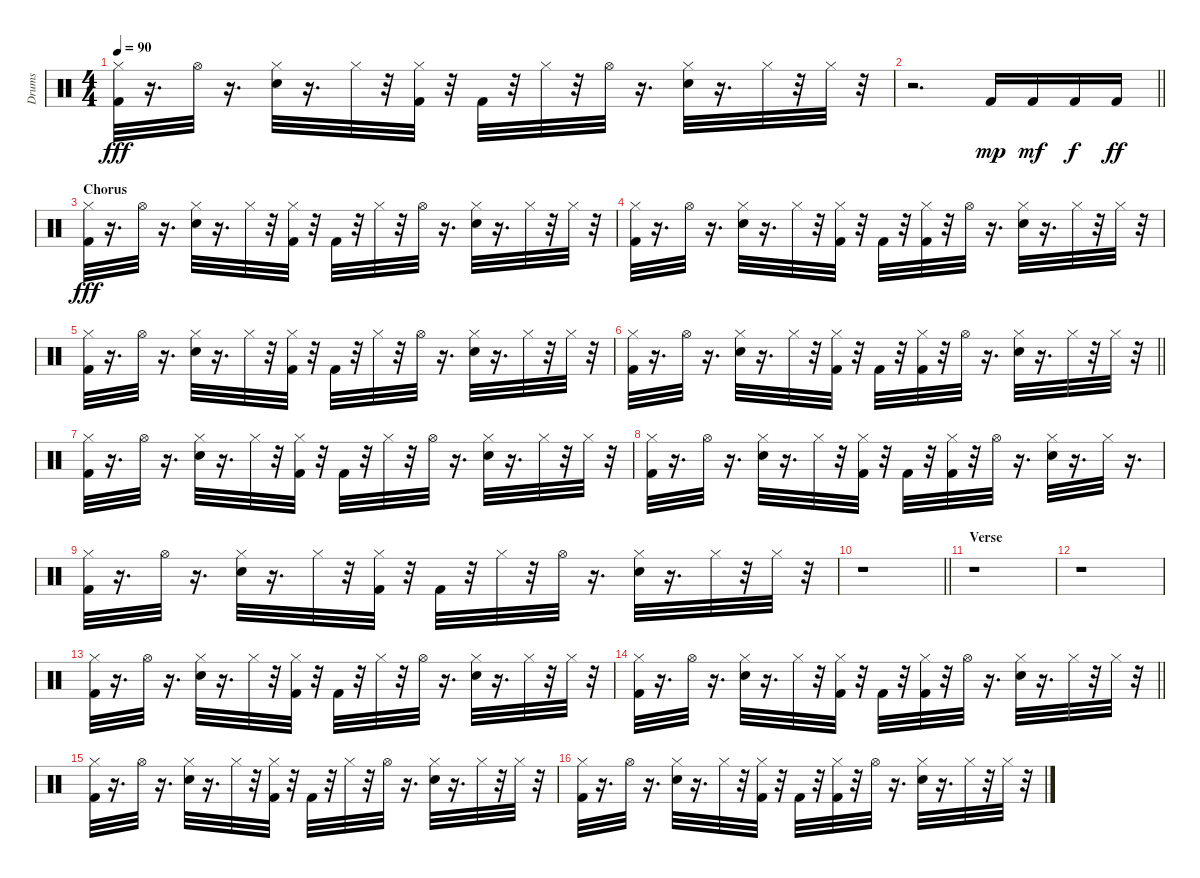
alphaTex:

\track ("Drums" "Drums") {instrument percussion}
\staff {score}
\articulation defaults
\ts (4 4)
\tempo 90
\clef neutral
\ks c
("Hi-Hat (closed)" "Kick (hit) 2").32{dy fff} r.16{d} "Hi-Hat (open)".32 r.16{d} ("Hi-Hat (closed)" "Snare (hit) 2").32 r.16{d} "Hi-Hat (closed)".32 r.32 ("Kick (hit) 2" "Hi-Hat (closed)").32 r.32 "Kick (hit) 2".32 r.32 "Hi-Hat (closed)".32 r.32 "Hi-Hat (open)".32 r.16{d} ("Hi-Hat (closed)" "Snare (hit) 2").32 r.16{d} "Hi-Hat (closed)".32 r.32 "Hi-Hat (closed)".32 r.32 |
\barLineRight lightlight
r.2{d} "Kick (hit) 2".16{dy mp} "Kick (hit) 2".16{dy mf} "Kick (hit) 2".16{dy f} "Kick (hit) 2".16{dy ff} |
\section ("" "Chorus")
("Kick (hit) 2" "Hi-Hat (closed)").32{dy fff} r.16{d} "Hi-Hat (open)".32 r.16{d} ("Hi-Hat (closed)" "Snare (hit) 2").32 r.16{d} "Hi-Hat (closed)".32 r.32 ("Kick (hit) 2" "Hi-Hat (closed)").32 r.32 "Kick (hit) 2".32 r.32 "Hi-Hat (closed)".32 r.32 "Hi-Hat (open)".32 r.16{d} ("Hi-Hat (closed)" "Snare (hit) 2").32 r.16{d} "Hi-Hat (closed)".32 r.32 "Hi-Hat (closed)".32 r.32 |
("Hi-Hat (closed)" "Kick (hit) 2").32 r.16{d} "Hi-Hat (open)".32 r.16{d} ("Snare (hit) 2" "Hi-Hat (closed)").32 r.16{d} "Hi-Hat (closed)".32 r.32 ("Hi-Hat (closed)" "Kick (hit) 2").32 r.32 "Kick (hit) 2".32 r.32 ("Hi-Hat (closed)" "Kick (hit) 2").32 r.32 "Hi-Hat (open)".32 r.16{d} ("Hi-Hat (closed)" "Snare (hit) 2").32 r.16{d} "Hi-Hat (closed)".32 r.32 "Hi-Hat (closed)".32 r.32 |
("Kick (hit) 2" "Hi-Hat (closed)").32 r.16{d} "Hi-Hat (open)".32 r.16{d} ("Snare (hit) 2" "Hi-Hat (closed)").32 r.16{d} "Hi-Hat (closed)".32 r.32 ("Hi-Hat (closed)" "Kick (hit) 2").32 r.32 "Kick (hit) 2".32 r.32 "Hi-Hat (closed)".32 r.32 "Hi-Hat (open)".32 r.16{d} ("Hi-Hat (closed)" "Snare (hit) 2").32 r.16{d} "Hi-Hat (closed)".32 r.32 "Hi-Hat (closed)".32 r.32 |
\barLineRight lightlight
("Hi-Hat (closed)" "Kick (hit) 2").32 r.16{d} "Hi-Hat (open)".32 r.16{d} ("Hi-Hat (closed)" "Snare (hit) 2").32 r.16{d} "Hi-Hat (closed)".32 r.32 ("Kick (hit) 2" "Hi-Hat (closed)").32 r.32 "Kick (hit) 2".32 r.32 ("Hi-Hat (closed)" "Kick (hit) 2").32 r.32 "Hi-Hat (open)".32 r.16{d} ("Snare (hit) 2" "Hi-Hat (closed)").32 r.16{d} "Hi-Hat (closed)".32 r.32 "Hi-Hat (closed)".32 r.32 |
("Hi-Hat (closed)" "Kick (hit) 2").32 r.16{d} "Hi-Hat (open)".32 r.16{d} ("Snare (hit) 2" "Hi-Hat (closed)").32 r.16{d} "Hi-Hat (closed)".32 r.32 ("Hi-Hat (closed)" "Kick (hit) 2").32 r.32 "Kick (hit) 2".32 r.32 "Hi-Hat (closed)".32 r.32 "Hi-Hat (open)".32 r.16{d} ("Hi-Hat (closed)" "Snare (hit) 2").32 r.16{d} "Hi-Hat (closed)".32 r.32 "Hi-Hat (closed)".32 r.32 |
("Hi-Hat (closed)" "Kick (hit) 2").32 r.16{d} "Hi-Hat (open)".32 r.16{d} ("Snare (hit) 2" "Hi-Hat (closed)").32 r.16{d} "Hi-Hat (closed)".32 r.32 ("Hi-Hat (closed)" "Kick (hit) 2").32 r.32 "Kick (hit) 2".32 r.32 ("Kick (hit) 2" "Hi-Hat (closed)").32 r.32 "Hi-Hat (open)".32 r.16{d} ("Hi-Hat (closed)" "Snare (hit) 2").32 r.16{d} "Hi-Hat (closed)".32 r.16{d} |
("Hi-Hat (closed)" "Kick (hit) 2").32 r.16{d} "Hi-Hat (open)".32 r.16{d} ("Snare (hit) 2" "Hi-Hat (closed)").32 r.16{d} "Hi-Hat (closed)".32 r.32 ("Kick (hit) 2" "Hi-Hat (closed)").32 r.32 "Kick (hit) 2".32 r.32 "Hi-Hat (closed)".32 r.32 "Hi-Hat (open)".32 r.16{d} ("Snare (hit) 2" "Hi-Hat (closed)").32 r.16{d} "Hi-Hat (closed)".32 r.32 "Hi-Hat (closed)".32 r.32 |
\barLineRight lightlight
r.1 |
\section ("" "Verse")
r.1 |
r.1 |
("Kick (hit) 2" "Hi-Hat (closed)").32 r.16{d} "Hi-Hat (open)".32 r.16{d} ("Hi-Hat (closed)" "Snare (hit) 2").32 r.16{d} "Hi-Hat (closed)".32 r.32 ("Kick (hit) 2" "Hi-Hat (closed)").32 r.32 "Kick (hit) 2".32 r.32 "Hi-Hat (closed)".32 r.32 "Hi-Hat (open)".32 r.16{d} ("Snare (hit) 2" "Hi-Hat (closed)").32 r.16{d} "Hi-Hat (closed)".32 r.32 "Hi-Hat (closed)".32 r.32 |
\barLineRight lightlight
("Kick (hit) 2" "Hi-Hat (closed)").32 r.16{d} "Hi-Hat (open)".32 r.16{d} ("Snare (hit) 2" "Hi-Hat (closed)").32 r.16{d} "Hi-Hat (closed)".32 r.32 ("Hi-Hat (closed)" "Kick (hit) 2").32 r.32 "Kick (hit) 2".32 r.32 ("Kick (hit) 2" "Hi-Hat (closed)").32 r.32 "Hi-Hat (open)".32 r.16{d} ("Snare (hit) 2" "Hi-Hat (closed)").32 r.16{d} "Hi-Hat (closed)".32 r.32 "Hi-Hat (closed)".32 r.32 |
("Hi-Hat (closed)" "Kick (hit) 2").32 r.16{d} "Hi-Hat (open)".32 r.16{d} ("Snare (hit) 2" "Hi-Hat (closed)").32 r.16{d} "Hi-Hat (closed)".32 r.32 ("Hi-Hat (closed)" "Kick (hit) 2").32 r.32 "Kick (hit) 2".32 r.32 "Hi-Hat (closed)".32 r.32 "Hi-Hat (open)".32 r.16{d} ("Snare (hit) 2" "Hi-Hat (closed)").32 r.16{d} "Hi-Hat (closed)".32 r.32 "Hi-Hat (closed)".32 r.32 |
("Kick (hit) 2" "Hi-Hat (closed)").32 r.16{d} "Hi-Hat (open)".32 r.16{d} ("Snare (hit) 2" "Hi-Hat (closed)").32 r.16{d} "Hi-Hat (closed)".32 r.32 ("Hi-Hat (closed)" "Kick (hit) 2").32 r.32 "Kick (hit) 2".32 r.32 ("Kick (hit) 2" "Hi-Hat (closed)").32 r.32 "Hi-Hat (open)".32 r.16{d} ("Hi-Hat (closed)" "Snare (hit) 2").32 r.16{d} "Hi-Hat (closed)".32 r.32 "Hi-Hat (closed)".32 r.32
